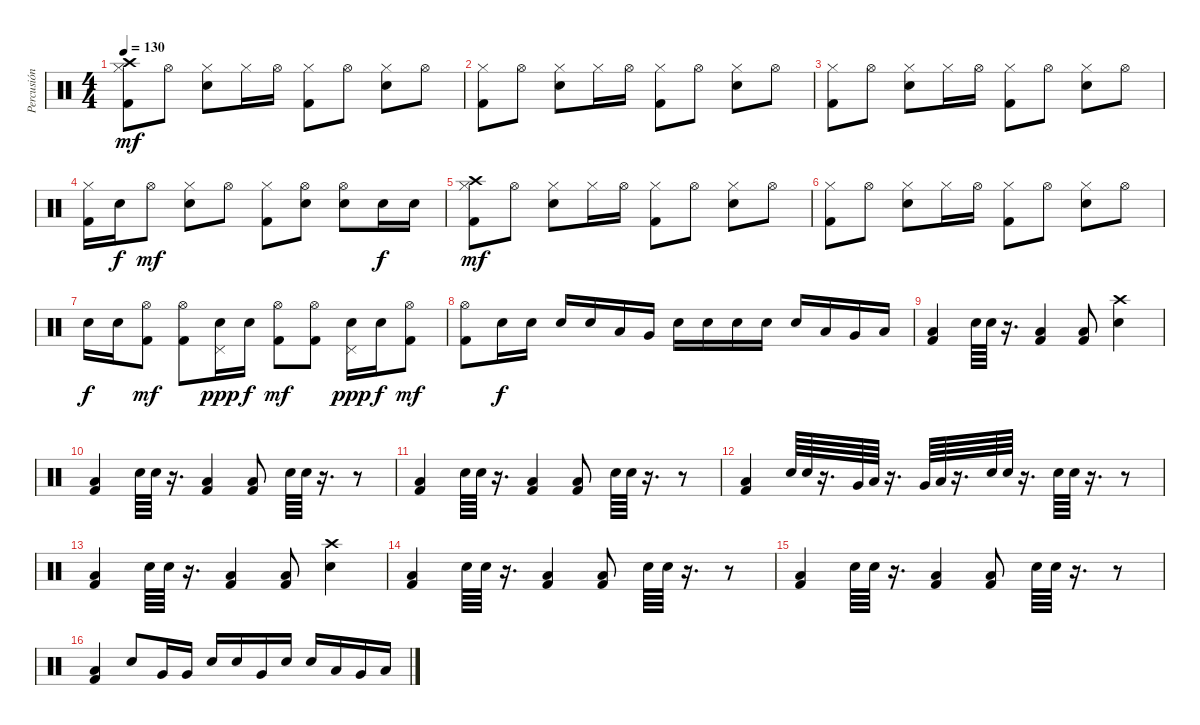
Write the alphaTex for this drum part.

\track ("Percusión" "Percusión") {instrument percussion}
\staff {score}
\articulation defaults
\ts (4 4)
\tempo 130
\clef neutral
\ks c
("Crash high (hit)" "Hi-Hat (closed)" "Kick (hit) 2").8{dy mf} "Hi-Hat (open)".8 ("Hi-Hat (closed)" "Snare (hit) 2").8 "Hi-Hat (closed)".16 "Hi-Hat (open)".16 ("Hi-Hat (closed)" "Kick (hit) 2").8 "Hi-Hat (open)".8 ("Hi-Hat (closed)" "Snare (hit) 2").8 "Hi-Hat (open)".8 |
("Hi-Hat (closed)" "Kick (hit) 2").8 "Hi-Hat (open)".8 ("Hi-Hat (closed)" "Snare (hit) 2").8 "Hi-Hat (closed)".16 "Hi-Hat (open)".16 ("Hi-Hat (closed)" "Kick (hit) 2").8 "Hi-Hat (open)".8 ("Hi-Hat (closed)" "Snare (hit) 2").8 "Hi-Hat (open)".8 |
("Hi-Hat (closed)" "Kick (hit) 2").8 "Hi-Hat (open)".8 ("Hi-Hat (closed)" "Snare (hit) 2").8 "Hi-Hat (closed)".16 "Hi-Hat (open)".16 ("Hi-Hat (closed)" "Kick (hit) 2").8 "Hi-Hat (open)".8 ("Hi-Hat (closed)" "Snare (hit) 2").8 "Hi-Hat (open)".8 |
("Hi-Hat (closed)" "Kick (hit) 2").16 "Snare (hit) 2".16{dy f} "Hi-Hat (open)".8{dy mf} ("Hi-Hat (closed)" "Snare (hit) 2").8 "Hi-Hat (open)".8 ("Hi-Hat (closed)" "Kick (hit) 2").8 ("Hi-Hat (open)" "Snare (hit) 2").8 ("Hi-Hat (open)" "Snare (hit) 2").8 "Snare (hit) 2".16{dy f} "Snare (hit) 2".16 |
("Crash high (hit)" "Hi-Hat (closed)" "Kick (hit) 2").8{dy mf} "Hi-Hat (open)".8 ("Hi-Hat (closed)" "Snare (hit) 2").8 "Hi-Hat (closed)".16 "Hi-Hat (open)".16 ("Hi-Hat (closed)" "Kick (hit) 2").8 "Hi-Hat (open)".8 ("Hi-Hat (closed)" "Snare (hit) 2").8 "Hi-Hat (open)".8 |
("Hi-Hat (closed)" "Kick (hit) 2").8 "Hi-Hat (open)".8 ("Hi-Hat (closed)" "Snare (hit) 2").8 "Hi-Hat (closed)".16 "Hi-Hat (open)".16 ("Hi-Hat (closed)" "Kick (hit) 2").8 "Hi-Hat (open)".8 ("Hi-Hat (closed)" "Snare (hit) 2").8 "Hi-Hat (open)".8 |
"Snare (hit) 2".16{dy f} "Snare (hit) 2".16 ("Hi-Hat (open)" "Kick (hit) 2").8{dy mf} ("Hi-Hat (open)" "Kick (hit) 2").8 ("Pedal Hi-Hat (hit)" "Snare (hit) 2").16{dy ppp} "Snare (hit) 2".16{dy f} ("Hi-Hat (open)" "Kick (hit) 2").8{dy mf} ("Hi-Hat (open)" "Kick (hit) 2").8 ("Pedal Hi-Hat (hit)" "Snare (hit) 2").16{dy ppp} "Snare (hit) 2".16{dy f} ("Hi-Hat (open)" "Kick (hit) 2").8{dy mf} |
("Hi-Hat (open)" "Kick (hit) 2").8 "Snare (hit) 2".16{dy f} "Snare (hit) 2".16 "Snare (hit) 2".16 "Snare (hit) 2".16 "Low Tom (hit)".16 "Very Low Tom (hit)".16 "Snare (hit) 2".16 "Snare (hit) 2".16 "Snare (hit) 2".16 "Snare (hit) 2".16 "Snare (hit) 2".16 "Low Tom (hit)".16 "Very Low Tom (hit)".16 "Low Floor Tom (hit)".16 |
("Low Floor Tom (hit)" "Kick (hit) 2").4 "Snare (hit) 2".64 "Snare (hit) 2".64 r.16{d} ("Low Floor Tom (hit)" "Kick (hit) 2").4 ("Low Floor Tom (hit)" "Kick (hit) 2").8 ("Crash high (hit)" "Snare (hit) 2").4 |
("Low Floor Tom (hit)" "Kick (hit) 2").4 "Snare (hit) 2".64 "Snare (hit) 2".64 r.16{d} ("Low Floor Tom (hit)" "Kick (hit) 2").4 ("Low Floor Tom (hit)" "Kick (hit) 2").8 "Snare (hit) 2".64 "Snare (hit) 2".64 r.16{d} r.8 |
("Low Floor Tom (hit)" "Kick (hit) 2").4 "Snare (hit) 2".64 "Snare (hit) 2".64 r.16{d} ("Low Floor Tom (hit)" "Kick (hit) 2").4 ("Low Floor Tom (hit)" "Kick (hit) 2").8 "Snare (hit) 2".64 "Snare (hit) 2".64 r.16{d} r.8 |
("Low Floor Tom (hit)" "Kick (hit) 2").4 "Snare (hit) 2".64 "Snare (hit) 2".64 r.16{d} "Very Low Tom (hit)".64 "Low Floor Tom (hit)".64 r.16{d} "Very Low Tom (hit)".64 "Low Floor Tom (hit)".64 r.16{d} "Snare (hit) 2".64 "Snare (hit) 2".64 r.16{d} "Snare (hit) 2".64 "Snare (hit) 2".64 r.16{d} r.8 |
("Low Floor Tom (hit)" "Kick (hit) 2").4 "Snare (hit) 2".64 "Snare (hit) 2".64 r.16{d} ("Low Floor Tom (hit)" "Kick (hit) 2").4 ("Low Floor Tom (hit)" "Kick (hit) 2").8 ("Crash high (hit)" "Snare (hit) 2").4 |
("Low Floor Tom (hit)" "Kick (hit) 2").4 "Snare (hit) 2".64 "Snare (hit) 2".64 r.16{d} ("Low Floor Tom (hit)" "Kick (hit) 2").4 ("Low Floor Tom (hit)" "Kick (hit) 2").8 "Snare (hit) 2".64 "Snare (hit) 2".64 r.16{d} r.8 |
("Low Floor Tom (hit)" "Kick (hit) 2").4 "Snare (hit) 2".64 "Snare (hit) 2".64 r.16{d} ("Low Floor Tom (hit)" "Kick (hit) 2").4 ("Low Floor Tom (hit)" "Kick (hit) 2").8 "Snare (hit) 2".64 "Snare (hit) 2".64 r.16{d} r.8 |
("Low Floor Tom (hit)" "Kick (hit) 2").4 "Snare (hit) 2".8 "Very Low Tom (hit)".16 "Very Low Tom (hit)".16 "Snare (hit) 2".16 "Snare (hit) 2".16 "Very Low Tom (hit)".16 "Snare (hit) 2".16 "Snare (hit) 2".16 "Low Tom (hit)".16 "Very Low Tom (hit)".16 "Low Floor Tom (hit)".16
